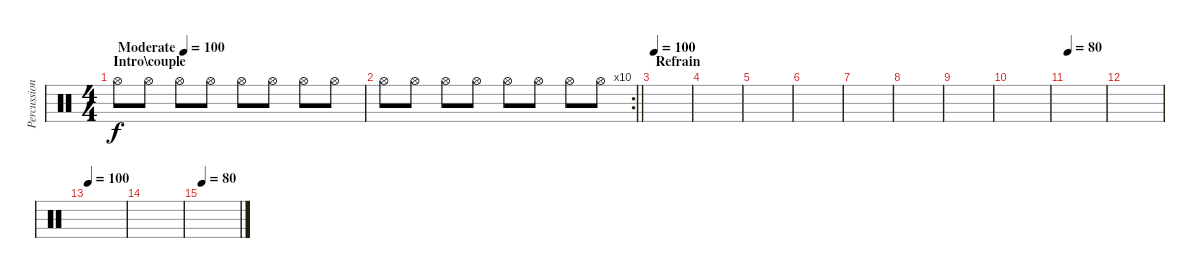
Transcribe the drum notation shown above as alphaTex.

\track ("Percussion" "Percussion") {instrument percussion}
\staff {score}
\articulation defaults
\ts (4 4)
\section ("" "Intro\\couple")
\tempo (100 "Moderate")
\tempo 80
\tempo (100 "Moderate")
\clef neutral
\ks c "Hi-Hat (open)".8{dy f} "Hi-Hat (open)".8 "Hi-Hat (open)".8 "Hi-Hat (open)".8 "Hi-Hat (open)".8 "Hi-Hat (open)".8 "Hi-Hat (open)".8 "Hi-Hat (open)".8
|
\rc 10
\barLineRight lightlight "Hi-Hat (open)".8 "Hi-Hat (open)".8 "Hi-Hat (open)".8 "Hi-Hat (open)".8 "Hi-Hat (open)".8 "Hi-Hat (open)".8 "Hi-Hat (open)".8 "Hi-Hat (open)".8
|
\section ("" "Refrain")
\tempo 100
|
|
|
|
|
|
|
|
\tempo 80
|
|
\tempo 100
|
|
\tempo 80
